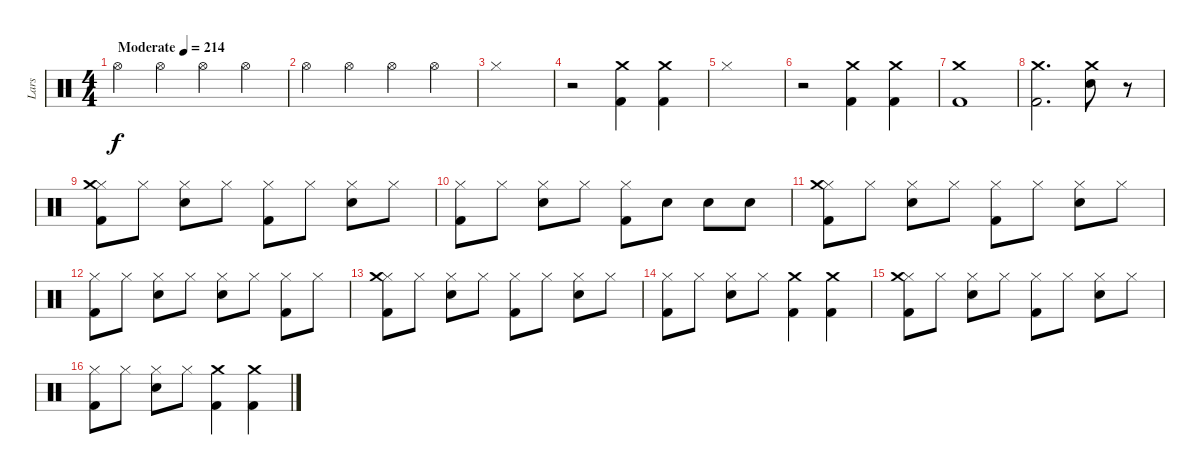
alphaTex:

\track ("Lars" "Lars") {instrument percussion}
\staff {score}
\articulation defaults
\ts (4 4)
\tempo (214 "Moderate")
\clef neutral
\ks c "Hi-Hat (open)".4{dy f} "Hi-Hat (open)".4 "Hi-Hat (open)".4 "Hi-Hat (open)".4
|
"Hi-Hat (open)".4 "Hi-Hat (open)".4 "Hi-Hat (open)".4 "Hi-Hat (open)".4 |
"Hi-Hat (closed)".1 |
r.2 ("Kick (hit) 2" "Crash medium (hit)").4 ("Kick (hit) 2" "Crash medium (hit)").4 |
"Hi-Hat (closed)".1 |
r.2 ("Kick (hit) 2" "Crash medium (hit)").4 ("Kick (hit) 2" "Crash medium (hit)").4 |
("Kick (hit) 2" "Crash medium (hit)").1 |
("Kick (hit) 2" "Crash medium (hit)").2{d} ("Snare (hit) 2" "Crash medium (hit)").8 r.8 |
("Hi-Hat (closed)" "Kick (hit) 2" "Crash medium (hit)").8 "Hi-Hat (closed)".8 ("Hi-Hat (closed)" "Snare (hit) 2").8 "Hi-Hat (closed)".8 ("Hi-Hat (closed)" "Kick (hit) 2").8 "Hi-Hat (closed)".8 ("Hi-Hat (closed)" "Snare (hit) 2").8 "Hi-Hat (closed)".8 |
("Hi-Hat (closed)" "Kick (hit) 2").8 "Hi-Hat (closed)".8 ("Hi-Hat (closed)" "Snare (hit) 2").8 "Hi-Hat (closed)".8 ("Hi-Hat (closed)" "Kick (hit) 2").8 "Snare (hit) 2".8 "Snare (hit) 2".8 "Snare (hit) 2".8 |
("Hi-Hat (closed)" "Kick (hit) 2" "Crash medium (hit)").8 "Hi-Hat (closed)".8 ("Hi-Hat (closed)" "Snare (hit) 2").8 "Hi-Hat (closed)".8 ("Hi-Hat (closed)" "Kick (hit) 2").8 "Hi-Hat (closed)".8 ("Hi-Hat (closed)" "Snare (hit) 2").8 "Hi-Hat (closed)".8 |
("Hi-Hat (closed)" "Kick (hit) 2").8 "Hi-Hat (closed)".8 ("Hi-Hat (closed)" "Snare (hit) 2").8 "Hi-Hat (closed)".8 ("Hi-Hat (closed)" "Snare (hit) 2").8 "Hi-Hat (closed)".8 ("Hi-Hat (closed)" "Kick (hit) 2").8 "Hi-Hat (closed)".8 |
("Hi-Hat (closed)" "Kick (hit) 2" "Crash medium (hit)").8 "Hi-Hat (closed)".8 ("Hi-Hat (closed)" "Snare (hit) 2").8 "Hi-Hat (closed)".8 ("Hi-Hat (closed)" "Kick (hit) 2").8 "Hi-Hat (closed)".8 ("Hi-Hat (closed)" "Snare (hit) 2").8 "Hi-Hat (closed)".8 |
("Hi-Hat (closed)" "Kick (hit) 2").8 "Hi-Hat (closed)".8 ("Hi-Hat (closed)" "Snare (hit) 2").8 "Hi-Hat (closed)".8 ("Kick (hit) 2" "Crash medium (hit)").4 ("Kick (hit) 2" "Crash medium (hit)").4 |
("Hi-Hat (closed)" "Kick (hit) 2" "Crash medium (hit)").8 "Hi-Hat (closed)".8 ("Hi-Hat (closed)" "Snare (hit) 2").8 "Hi-Hat (closed)".8 ("Hi-Hat (closed)" "Kick (hit) 2").8 "Hi-Hat (closed)".8 ("Hi-Hat (closed)" "Snare (hit) 2").8 "Hi-Hat (closed)".8 |
("Hi-Hat (closed)" "Kick (hit) 2").8 "Hi-Hat (closed)".8 ("Hi-Hat (closed)" "Snare (hit) 2").8 "Hi-Hat (closed)".8 ("Kick (hit) 2" "Crash medium (hit)").4 ("Kick (hit) 2" "Crash medium (hit)").4
